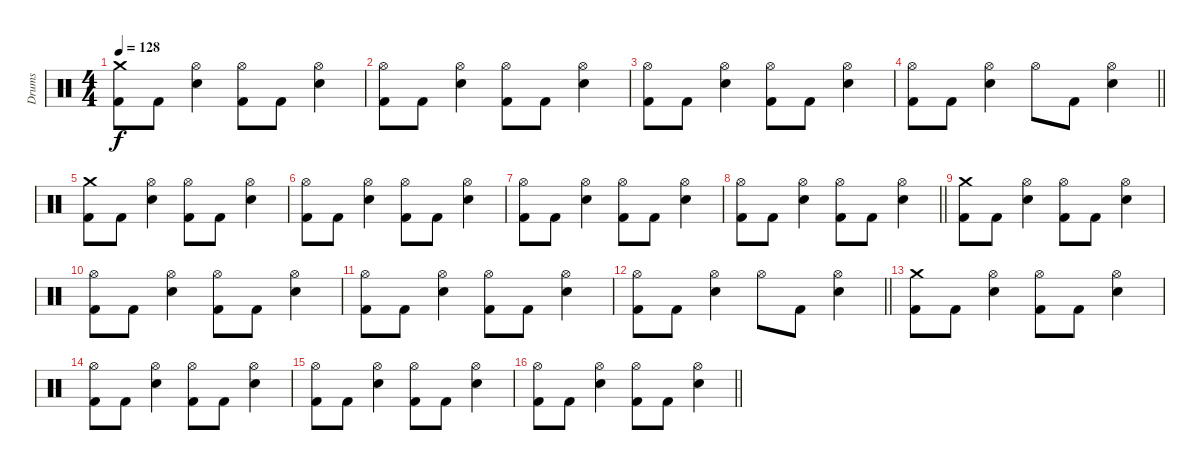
\track ("Drums" "Drums") {instrument percussion}
\staff {score}
\articulation defaults
\ts (4 4)
\tempo 128
\clef neutral
\ks c
("Crash medium (hit)" "Kick (hit) 2").8{dy f} "Kick (hit) 2".8 ("Hi-Hat (open)" "Electric Snare (hit)").4 ("Hi-Hat (open)" "Kick (hit) 2").8 "Kick (hit) 2".8 ("Hi-Hat (open)" "Electric Snare (hit)").4 |
("Hi-Hat (open)" "Kick (hit) 2").8 "Kick (hit) 2".8 ("Hi-Hat (open)" "Electric Snare (hit)").4 ("Hi-Hat (open)" "Kick (hit) 2").8 "Kick (hit) 2".8 ("Hi-Hat (open)" "Electric Snare (hit)").4 |
("Hi-Hat (open)" "Kick (hit) 2").8 "Kick (hit) 2".8 ("Hi-Hat (open)" "Electric Snare (hit)").4 ("Hi-Hat (open)" "Kick (hit) 2").8 "Kick (hit) 2".8 ("Hi-Hat (open)" "Electric Snare (hit)").4 |
\barLineRight lightlight
("Hi-Hat (open)" "Kick (hit) 2").8 "Kick (hit) 2".8 ("Hi-Hat (open)" "Electric Snare (hit)").4 "Hi-Hat (open)".8 "Kick (hit) 2".8 ("Hi-Hat (open)" "Electric Snare (hit)").4 |
("Crash medium (hit)" "Kick (hit) 2").8 "Kick (hit) 2".8 ("Hi-Hat (open)" "Electric Snare (hit)").4 ("Hi-Hat (open)" "Kick (hit) 2").8 "Kick (hit) 2".8 ("Hi-Hat (open)" "Electric Snare (hit)").4 |
("Hi-Hat (open)" "Kick (hit) 2").8 "Kick (hit) 2".8 ("Hi-Hat (open)" "Electric Snare (hit)").4 ("Hi-Hat (open)" "Kick (hit) 2").8 "Kick (hit) 2".8 ("Hi-Hat (open)" "Electric Snare (hit)").4 |
("Hi-Hat (open)" "Kick (hit) 2").8 "Kick (hit) 2".8 ("Hi-Hat (open)" "Electric Snare (hit)").4 ("Hi-Hat (open)" "Kick (hit) 2").8 "Kick (hit) 2".8 ("Hi-Hat (open)" "Electric Snare (hit)").4 |
\barLineRight lightlight
("Hi-Hat (open)" "Kick (hit) 2").8 "Kick (hit) 2".8 ("Hi-Hat (open)" "Electric Snare (hit)").4 ("Hi-Hat (open)" "Kick (hit) 2").8 "Kick (hit) 2".8 ("Hi-Hat (open)" "Electric Snare (hit)").4 |
("Crash medium (hit)" "Kick (hit) 2").8 "Kick (hit) 2".8 ("Hi-Hat (open)" "Electric Snare (hit)").4 ("Hi-Hat (open)" "Kick (hit) 2").8 "Kick (hit) 2".8 ("Hi-Hat (open)" "Electric Snare (hit)").4 |
("Hi-Hat (open)" "Kick (hit) 2").8 "Kick (hit) 2".8 ("Hi-Hat (open)" "Electric Snare (hit)").4 ("Hi-Hat (open)" "Kick (hit) 2").8 "Kick (hit) 2".8 ("Hi-Hat (open)" "Electric Snare (hit)").4 |
("Hi-Hat (open)" "Kick (hit) 2").8 "Kick (hit) 2".8 ("Hi-Hat (open)" "Electric Snare (hit)").4 ("Hi-Hat (open)" "Kick (hit) 2").8 "Kick (hit) 2".8 ("Hi-Hat (open)" "Electric Snare (hit)").4 |
\barLineRight lightlight
("Hi-Hat (open)" "Kick (hit) 2").8 "Kick (hit) 2".8 ("Hi-Hat (open)" "Electric Snare (hit)").4 "Hi-Hat (open)".8 "Kick (hit) 2".8 ("Hi-Hat (open)" "Electric Snare (hit)").4 |
("Crash medium (hit)" "Kick (hit) 2").8 "Kick (hit) 2".8 ("Hi-Hat (open)" "Electric Snare (hit)").4 ("Hi-Hat (open)" "Kick (hit) 2").8 "Kick (hit) 2".8 ("Hi-Hat (open)" "Electric Snare (hit)").4 |
("Hi-Hat (open)" "Kick (hit) 2").8 "Kick (hit) 2".8 ("Hi-Hat (open)" "Electric Snare (hit)").4 ("Hi-Hat (open)" "Kick (hit) 2").8 "Kick (hit) 2".8 ("Hi-Hat (open)" "Electric Snare (hit)").4 |
("Hi-Hat (open)" "Kick (hit) 2").8 "Kick (hit) 2".8 ("Hi-Hat (open)" "Electric Snare (hit)").4 ("Hi-Hat (open)" "Kick (hit) 2").8 "Kick (hit) 2".8 ("Hi-Hat (open)" "Electric Snare (hit)").4 |
\barLineRight lightlight
("Hi-Hat (open)" "Kick (hit) 2").8 "Kick (hit) 2".8 ("Hi-Hat (open)" "Electric Snare (hit)").4 ("Hi-Hat (open)" "Kick (hit) 2").8 "Kick (hit) 2".8 ("Hi-Hat (open)" "Electric Snare (hit)").4
